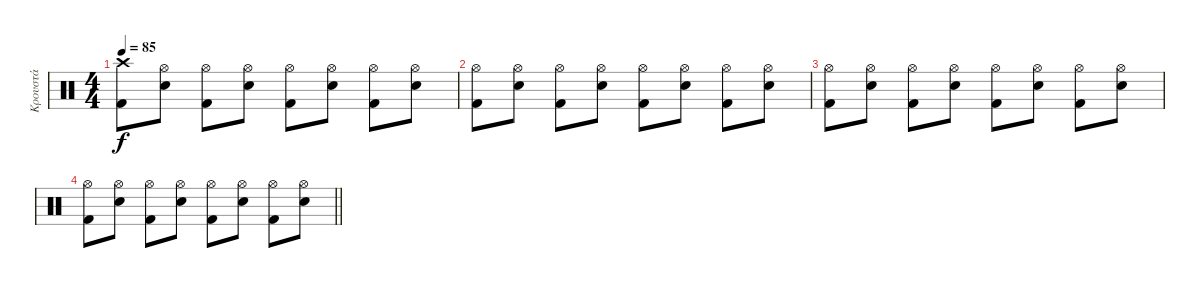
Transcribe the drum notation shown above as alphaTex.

\track ("Κρουστά" "Κρουστά") {instrument percussion}
\staff {score}
\articulation defaults
\ts (4 4)
\tempo 85
\clef neutral
\ks c
("Crash high (hit)" "Kick (hit) 2").8{dy f} ("Snare (hit) 2" "Hi-Hat (open)").8 ("Hi-Hat (open)" "Kick (hit) 2").8 ("Snare (hit) 2" "Hi-Hat (open)").8 ("Hi-Hat (open)" "Kick (hit) 2").8 ("Snare (hit) 2" "Hi-Hat (open)").8 ("Hi-Hat (open)" "Kick (hit) 2").8 ("Snare (hit) 2" "Hi-Hat (open)").8 |
("Hi-Hat (open)" "Kick (hit) 2").8 ("Snare (hit) 2" "Hi-Hat (open)").8 ("Hi-Hat (open)" "Kick (hit) 2").8 ("Snare (hit) 2" "Hi-Hat (open)").8 ("Hi-Hat (open)" "Kick (hit) 2").8 ("Snare (hit) 2" "Hi-Hat (open)").8 ("Hi-Hat (open)" "Kick (hit) 2").8 ("Snare (hit) 2" "Hi-Hat (open)").8 |
("Hi-Hat (open)" "Kick (hit) 2").8 ("Snare (hit) 2" "Hi-Hat (open)").8 ("Hi-Hat (open)" "Kick (hit) 2").8 ("Snare (hit) 2" "Hi-Hat (open)").8 ("Hi-Hat (open)" "Kick (hit) 2").8 ("Snare (hit) 2" "Hi-Hat (open)").8 ("Hi-Hat (open)" "Kick (hit) 2").8 ("Snare (hit) 2" "Hi-Hat (open)").8 |
\barLineRight lightlight
("Hi-Hat (open)" "Kick (hit) 2").8 ("Snare (hit) 2" "Hi-Hat (open)").8 ("Hi-Hat (open)" "Kick (hit) 2").8 ("Snare (hit) 2" "Hi-Hat (open)").8 ("Hi-Hat (open)" "Kick (hit) 2").8 ("Snare (hit) 2" "Hi-Hat (open)").8 ("Hi-Hat (open)" "Kick (hit) 2").8 ("Snare (hit) 2" "Hi-Hat (open)").8
